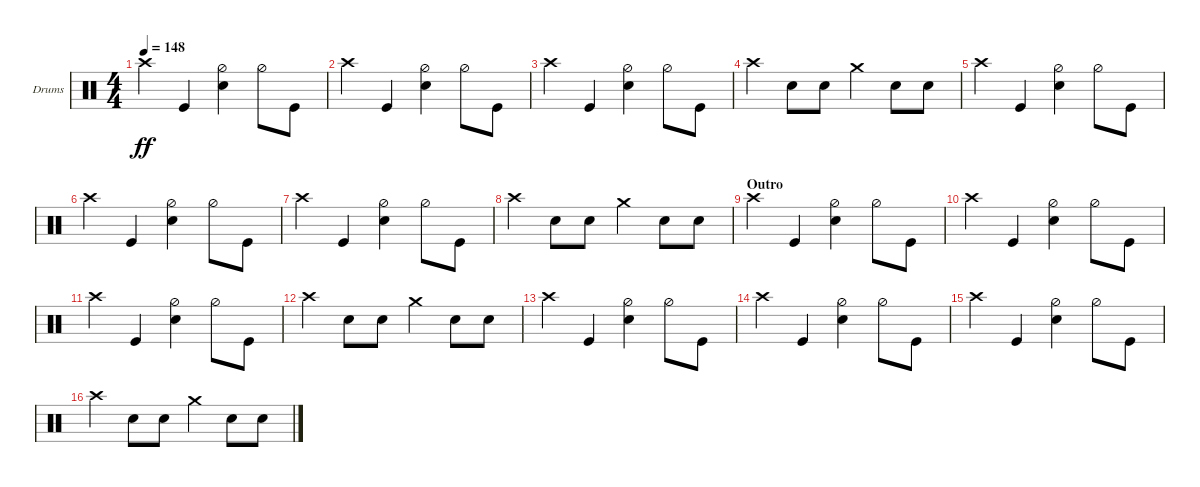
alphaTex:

\defaultSystemsLayout 4
\bracketExtendMode groupsimilarinstruments
\firstSystemTrackNameOrientation horizontal
\otherSystemsTrackNameOrientation horizontal
\track ("Drumkit" "Drums") {instrument percussion}
\staff {score}
\articulation defaults
\ts (4 4)
\tempo 148
\clef neutral
\scale
0.333333
\ks c "Crash high (hit)".4{dy ff} "Kick (hit)".4
("Hi-Hat (half)" "Snare (hit) 2").4 "Hi-Hat (half)".8 "Kick (hit)".8 |
\scale
0.333333 "Crash high (hit)".4 "Kick (hit)".4 ("Hi-Hat (half)" "Snare (hit) 2").4 "Hi-Hat (half)".8 "Kick (hit)".8 |
"Crash high (hit)".4 "Kick (hit)".4 ("Hi-Hat (half)" "Snare (hit) 2").4 "Hi-Hat (half)".8 "Kick (hit)".8 |
"Crash high (hit)".4 "Snare (hit) 2".8 "Snare (hit) 2".8 "Crash medium (hit)".4 "Snare (hit) 2".8 "Snare (hit) 2".8 |
"Crash high (hit)".4 "Kick (hit)".4 ("Hi-Hat (half)" "Snare (hit) 2").4 "Hi-Hat (half)".8 "Kick (hit)".8 |
"Crash high (hit)".4 "Kick (hit)".4 ("Hi-Hat (half)" "Snare (hit) 2").4 "Hi-Hat (half)".8 "Kick (hit)".8 |
"Crash high (hit)".4 "Kick (hit)".4 ("Hi-Hat (half)" "Snare (hit) 2").4 "Hi-Hat (half)".8 "Kick (hit)".8 |
"Crash high (hit)".4 "Snare (hit) 2".8 "Snare (hit) 2".8 "Crash medium (hit)".4 "Snare (hit) 2".8 "Snare (hit) 2".8 |
\section ("" "Outro")
"Crash high (hit)".4 "Kick (hit)".4 ("Hi-Hat (half)" "Snare (hit) 2").4 "Hi-Hat (half)".8 "Kick (hit)".8 |
"Crash high (hit)".4 "Kick (hit)".4 ("Hi-Hat (half)" "Snare (hit) 2").4 "Hi-Hat (half)".8 "Kick (hit)".8 |
"Crash high (hit)".4 "Kick (hit)".4 ("Hi-Hat (half)" "Snare (hit) 2").4 "Hi-Hat (half)".8 "Kick (hit)".8 |
"Crash high (hit)".4 "Snare (hit) 2".8 "Snare (hit) 2".8 "Crash medium (hit)".4 "Snare (hit) 2".8 "Snare (hit) 2".8 |
"Crash high (hit)".4 "Kick (hit)".4 ("Hi-Hat (half)" "Snare (hit) 2").4 "Hi-Hat (half)".8 "Kick (hit)".8 |
"Crash high (hit)".4 "Kick (hit)".4 ("Hi-Hat (half)" "Snare (hit) 2").4 "Hi-Hat (half)".8 "Kick (hit)".8 |
"Crash high (hit)".4 "Kick (hit)".4 ("Hi-Hat (half)" "Snare (hit) 2").4 "Hi-Hat (half)".8 "Kick (hit)".8 |
"Crash high (hit)".4 "Snare (hit) 2".8 "Snare (hit) 2".8 "Crash medium (hit)".4 "Snare (hit) 2".8 "Snare (hit) 2".8
